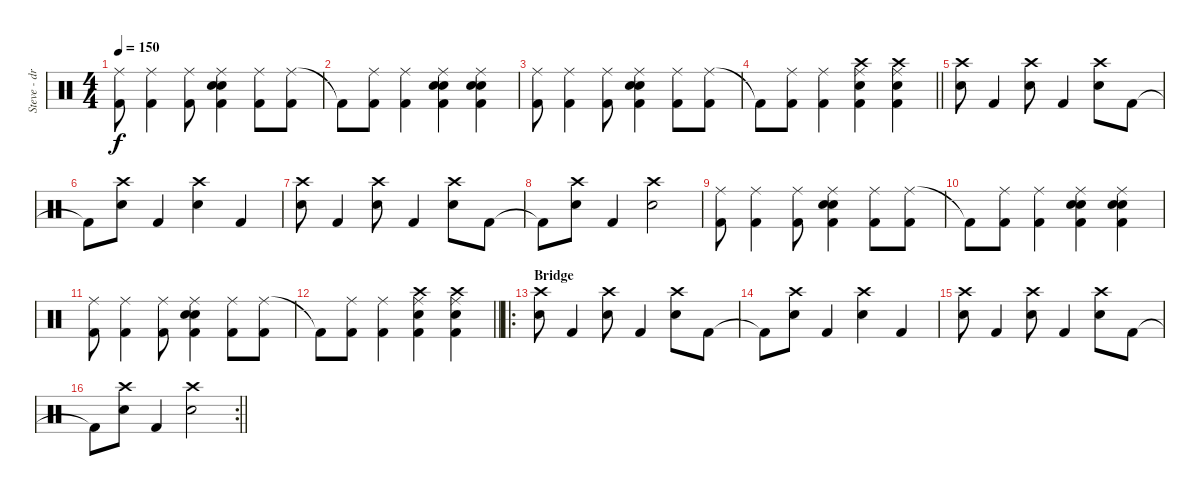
\track ("Steve - drums" "Steve - dr") {instrument percussion}
\staff {score}
\articulation defaults
\ts (4 4)
\tempo 150
\clef neutral
\ks c
("Ride (middle)" "Kick (hit) 2").8{dy f} ("Ride (middle)" "Kick (hit) 2").4 ("Ride (middle)" "Kick (hit) 2").8 ("Electric Snare (hit)" "Ride (middle)" "Kick (hit) 2" "Snare (hit) 2").4 ("Ride (middle)" "Kick (hit) 2").8 ("Ride (middle)" "Kick (hit) 2").8 |
"Kick (hit) 2"{t}.8 ("Ride (middle)" "Kick (hit) 2").8 ("Ride (middle)" "Kick (hit) 2").4 ("Electric Snare (hit)" "Ride (middle)" "Kick (hit) 2" "Snare (hit) 2").4 ("Electric Snare (hit)" "Ride (middle)" "Kick (hit) 2" "Snare (hit) 2").4 |
("Ride (middle)" "Kick (hit) 2").8 ("Ride (middle)" "Kick (hit) 2").4 ("Ride (middle)" "Kick (hit) 2").8 ("Electric Snare (hit)" "Ride (middle)" "Kick (hit) 2" "Snare (hit) 2").4 ("Ride (middle)" "Kick (hit) 2").8 ("Ride (middle)" "Kick (hit) 2").8 |
\barLineRight lightlight "Kick (hit) 2"{t}.8
("Ride (middle)" "Kick (hit) 2").8 ("Ride (middle)" "Kick (hit) 2").4 ("Crash high (hit)" "Ride (middle)" "Kick (hit) 2" "Snare (hit) 2").4 ("Crash high (hit)" "Ride (middle)" "Kick (hit) 2" "Snare (hit) 2").4 |
("Crash high (hit)" "Snare (hit) 2").8 "Kick (hit) 2".4 ("Crash high (hit)" "Snare (hit) 2").8 "Kick (hit) 2".4 ("Crash high (hit)" "Snare (hit) 2").8 "Kick (hit) 2".8 |
"Kick (hit) 2"{t}.8 ("Crash high (hit)" "Snare (hit) 2").8 "Kick (hit) 2".4 ("Crash high (hit)" "Snare (hit) 2").4 "Kick (hit) 2".4 |
("Crash high (hit)" "Snare (hit) 2").8 "Kick (hit) 2".4 ("Crash high (hit)" "Snare (hit) 2").8 "Kick (hit) 2".4 ("Crash high (hit)" "Snare (hit) 2").8 "Kick (hit) 2".8 |
"Kick (hit) 2"{t}.8 ("Crash high (hit)" "Snare (hit) 2").8 "Kick (hit) 2".4 ("Crash high (hit)" "Snare (hit) 2").2 |
("Ride (middle)" "Kick (hit) 2").8 ("Ride (middle)" "Kick (hit) 2").4 ("Ride (middle)" "Kick (hit) 2").8 ("Electric Snare (hit)" "Ride (middle)" "Kick (hit) 2" "Snare (hit) 2").4 ("Ride (middle)" "Kick (hit) 2").8 ("Ride (middle)" "Kick (hit) 2").8 |
"Kick (hit) 2"{t}.8 ("Ride (middle)" "Kick (hit) 2").8 ("Ride (middle)" "Kick (hit) 2").4 ("Electric Snare (hit)" "Ride (middle)" "Kick (hit) 2" "Snare (hit) 2").4 ("Electric Snare (hit)" "Ride (middle)" "Kick (hit) 2" "Snare (hit) 2").4 |
("Ride (middle)" "Kick (hit) 2").8 ("Ride (middle)" "Kick (hit) 2").4 ("Ride (middle)" "Kick (hit) 2").8 ("Electric Snare (hit)" "Ride (middle)" "Kick (hit) 2" "Snare (hit) 2").4 ("Ride (middle)" "Kick (hit) 2").8 ("Ride (middle)" "Kick (hit) 2").8 |
\barLineRight lightlight "Kick (hit) 2"{t}.8
("Ride (middle)" "Kick (hit) 2").8 ("Ride (middle)" "Kick (hit) 2").4 ("Crash high (hit)" "Ride (middle)" "Kick (hit) 2" "Snare (hit) 2").4 ("Crash high (hit)" "Ride (middle)" "Kick (hit) 2" "Snare (hit) 2").4 |
\ro
\section ("" "Bridge")
("Crash high (hit)" "Snare (hit) 2").8 "Kick (hit) 2".4 ("Crash high (hit)" "Snare (hit) 2").8 "Kick (hit) 2".4 ("Crash high (hit)" "Snare (hit) 2").8 "Kick (hit) 2".8 |
"Kick (hit) 2"{t}.8 ("Crash high (hit)" "Snare (hit) 2").8 "Kick (hit) 2".4 ("Crash high (hit)" "Snare (hit) 2").4 "Kick (hit) 2".4 |
("Crash high (hit)" "Snare (hit) 2").8 "Kick (hit) 2".4 ("Crash high (hit)" "Snare (hit) 2").8 "Kick (hit) 2".4 ("Crash high (hit)" "Snare (hit) 2").8 "Kick (hit) 2".8 |
\rc 2
\barLineRight lightlight "Kick (hit) 2"{t}.8
("Crash high (hit)" "Snare (hit) 2").8 "Kick (hit) 2".4 ("Crash high (hit)" "Snare (hit) 2").2
